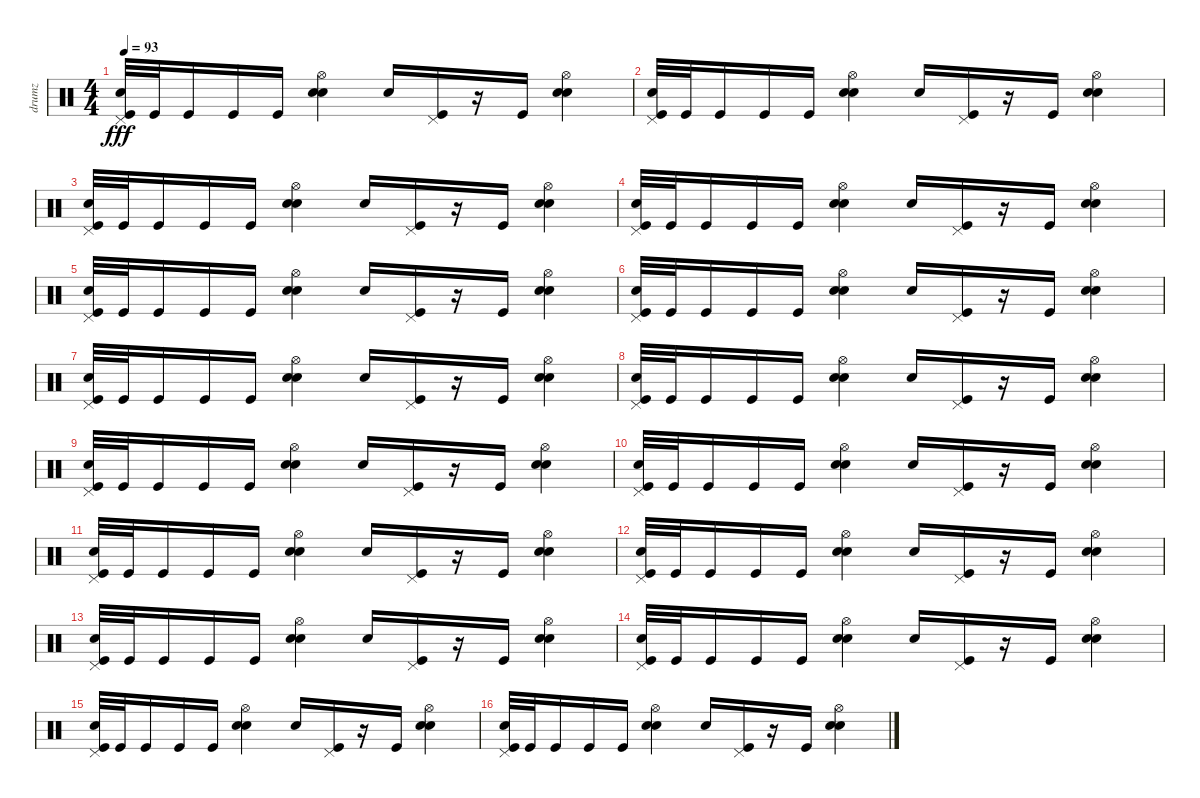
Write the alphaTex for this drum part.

\track ("drumz" "drumz") {instrument percussion}
\staff {score}
\articulation defaults
\ts (4 4)
\tempo 93
\clef neutral
\ks c
("Kick (hit)" "Pedal Hi-Hat (hit)" "Hand Clap (hit)").32{dy fff} "Kick (hit)".32 "Kick (hit)".16 "Kick (hit)".16 "Kick (hit)".16 ("Snare (hit) 2" "Hi-Hat (open)" "Hand Clap (hit)").4 "Hand Clap (hit)".16 ("Kick (hit)" "Pedal Hi-Hat (hit)").16 r.16 "Kick (hit)".16 ("Snare (hit) 2" "Hi-Hat (open)" "Hand Clap (hit)").4 |
("Kick (hit)" "Pedal Hi-Hat (hit)" "Hand Clap (hit)").32 "Kick (hit)".32 "Kick (hit)".16 "Kick (hit)".16 "Kick (hit)".16 ("Snare (hit) 2" "Hi-Hat (open)" "Hand Clap (hit)").4 "Hand Clap (hit)".16 ("Kick (hit)" "Pedal Hi-Hat (hit)").16 r.16 "Kick (hit)".16 ("Snare (hit) 2" "Hi-Hat (open)" "Hand Clap (hit)").4 |
("Kick (hit)" "Pedal Hi-Hat (hit)" "Hand Clap (hit)").32 "Kick (hit)".32 "Kick (hit)".16 "Kick (hit)".16 "Kick (hit)".16 ("Snare (hit) 2" "Hi-Hat (open)" "Hand Clap (hit)").4 "Hand Clap (hit)".16 ("Kick (hit)" "Pedal Hi-Hat (hit)").16 r.16 "Kick (hit)".16 ("Snare (hit) 2" "Hi-Hat (open)" "Hand Clap (hit)").4 |
("Kick (hit)" "Pedal Hi-Hat (hit)" "Hand Clap (hit)").32 "Kick (hit)".32 "Kick (hit)".16 "Kick (hit)".16 "Kick (hit)".16 ("Snare (hit) 2" "Hi-Hat (open)" "Hand Clap (hit)").4 "Hand Clap (hit)".16 ("Kick (hit)" "Pedal Hi-Hat (hit)").16 r.16 "Kick (hit)".16 ("Snare (hit) 2" "Hi-Hat (open)" "Hand Clap (hit)").4 |
("Kick (hit)" "Pedal Hi-Hat (hit)" "Hand Clap (hit)").32 "Kick (hit)".32 "Kick (hit)".16 "Kick (hit)".16 "Kick (hit)".16 ("Snare (hit) 2" "Hi-Hat (open)" "Hand Clap (hit)").4 "Hand Clap (hit)".16 ("Kick (hit)" "Pedal Hi-Hat (hit)").16 r.16 "Kick (hit)".16 ("Snare (hit) 2" "Hi-Hat (open)" "Hand Clap (hit)").4 |
("Kick (hit)" "Pedal Hi-Hat (hit)" "Hand Clap (hit)").32 "Kick (hit)".32 "Kick (hit)".16 "Kick (hit)".16 "Kick (hit)".16 ("Snare (hit) 2" "Hi-Hat (open)" "Hand Clap (hit)").4 "Hand Clap (hit)".16 ("Kick (hit)" "Pedal Hi-Hat (hit)").16 r.16 "Kick (hit)".16 ("Snare (hit) 2" "Hi-Hat (open)" "Hand Clap (hit)").4 |
("Kick (hit)" "Pedal Hi-Hat (hit)" "Hand Clap (hit)").32 "Kick (hit)".32 "Kick (hit)".16 "Kick (hit)".16 "Kick (hit)".16 ("Snare (hit) 2" "Hi-Hat (open)" "Hand Clap (hit)").4 "Hand Clap (hit)".16 ("Kick (hit)" "Pedal Hi-Hat (hit)").16 r.16 "Kick (hit)".16 ("Snare (hit) 2" "Hi-Hat (open)" "Hand Clap (hit)").4 |
("Kick (hit)" "Pedal Hi-Hat (hit)" "Hand Clap (hit)").32 "Kick (hit)".32 "Kick (hit)".16 "Kick (hit)".16 "Kick (hit)".16 ("Snare (hit) 2" "Hi-Hat (open)" "Hand Clap (hit)").4 "Hand Clap (hit)".16 ("Kick (hit)" "Pedal Hi-Hat (hit)").16 r.16 "Kick (hit)".16 ("Snare (hit) 2" "Hi-Hat (open)" "Hand Clap (hit)").4 |
("Kick (hit)" "Pedal Hi-Hat (hit)" "Hand Clap (hit)").32 "Kick (hit)".32 "Kick (hit)".16 "Kick (hit)".16 "Kick (hit)".16 ("Snare (hit) 2" "Hi-Hat (open)" "Hand Clap (hit)").4 "Hand Clap (hit)".16 ("Kick (hit)" "Pedal Hi-Hat (hit)").16 r.16 "Kick (hit)".16 ("Snare (hit) 2" "Hi-Hat (open)" "Hand Clap (hit)").4 |
("Kick (hit)" "Pedal Hi-Hat (hit)" "Hand Clap (hit)").32 "Kick (hit)".32 "Kick (hit)".16 "Kick (hit)".16 "Kick (hit)".16 ("Snare (hit) 2" "Hi-Hat (open)" "Hand Clap (hit)").4 "Hand Clap (hit)".16 ("Kick (hit)" "Pedal Hi-Hat (hit)").16 r.16 "Kick (hit)".16 ("Snare (hit) 2" "Hi-Hat (open)" "Hand Clap (hit)").4 |
("Kick (hit)" "Pedal Hi-Hat (hit)" "Hand Clap (hit)").32 "Kick (hit)".32 "Kick (hit)".16 "Kick (hit)".16 "Kick (hit)".16 ("Snare (hit) 2" "Hi-Hat (open)" "Hand Clap (hit)").4 "Hand Clap (hit)".16 ("Kick (hit)" "Pedal Hi-Hat (hit)").16 r.16 "Kick (hit)".16 ("Snare (hit) 2" "Hi-Hat (open)" "Hand Clap (hit)").4 |
("Kick (hit)" "Pedal Hi-Hat (hit)" "Hand Clap (hit)").32 "Kick (hit)".32 "Kick (hit)".16 "Kick (hit)".16 "Kick (hit)".16 ("Snare (hit) 2" "Hi-Hat (open)" "Hand Clap (hit)").4 "Hand Clap (hit)".16 ("Kick (hit)" "Pedal Hi-Hat (hit)").16 r.16 "Kick (hit)".16 ("Snare (hit) 2" "Hi-Hat (open)" "Hand Clap (hit)").4 |
("Kick (hit)" "Pedal Hi-Hat (hit)" "Hand Clap (hit)").32 "Kick (hit)".32 "Kick (hit)".16 "Kick (hit)".16 "Kick (hit)".16 ("Snare (hit) 2" "Hi-Hat (open)" "Hand Clap (hit)").4 "Hand Clap (hit)".16 ("Kick (hit)" "Pedal Hi-Hat (hit)").16 r.16 "Kick (hit)".16 ("Snare (hit) 2" "Hi-Hat (open)" "Hand Clap (hit)").4 |
("Kick (hit)" "Pedal Hi-Hat (hit)" "Hand Clap (hit)").32 "Kick (hit)".32 "Kick (hit)".16 "Kick (hit)".16 "Kick (hit)".16 ("Snare (hit) 2" "Hi-Hat (open)" "Hand Clap (hit)").4 "Hand Clap (hit)".16 ("Kick (hit)" "Pedal Hi-Hat (hit)").16 r.16 "Kick (hit)".16 ("Snare (hit) 2" "Hi-Hat (open)" "Hand Clap (hit)").4 |
("Kick (hit)" "Pedal Hi-Hat (hit)" "Hand Clap (hit)").32 "Kick (hit)".32 "Kick (hit)".16 "Kick (hit)".16 "Kick (hit)".16 ("Snare (hit) 2" "Hi-Hat (open)" "Hand Clap (hit)").4 "Hand Clap (hit)".16 ("Kick (hit)" "Pedal Hi-Hat (hit)").16 r.16 "Kick (hit)".16 ("Snare (hit) 2" "Hi-Hat (open)" "Hand Clap (hit)").4 |
("Kick (hit)" "Pedal Hi-Hat (hit)" "Hand Clap (hit)").32 "Kick (hit)".32 "Kick (hit)".16 "Kick (hit)".16 "Kick (hit)".16 ("Snare (hit) 2" "Hi-Hat (open)" "Hand Clap (hit)").4 "Hand Clap (hit)".16 ("Kick (hit)" "Pedal Hi-Hat (hit)").16 r.16 "Kick (hit)".16 ("Snare (hit) 2" "Hi-Hat (open)" "Hand Clap (hit)").4
